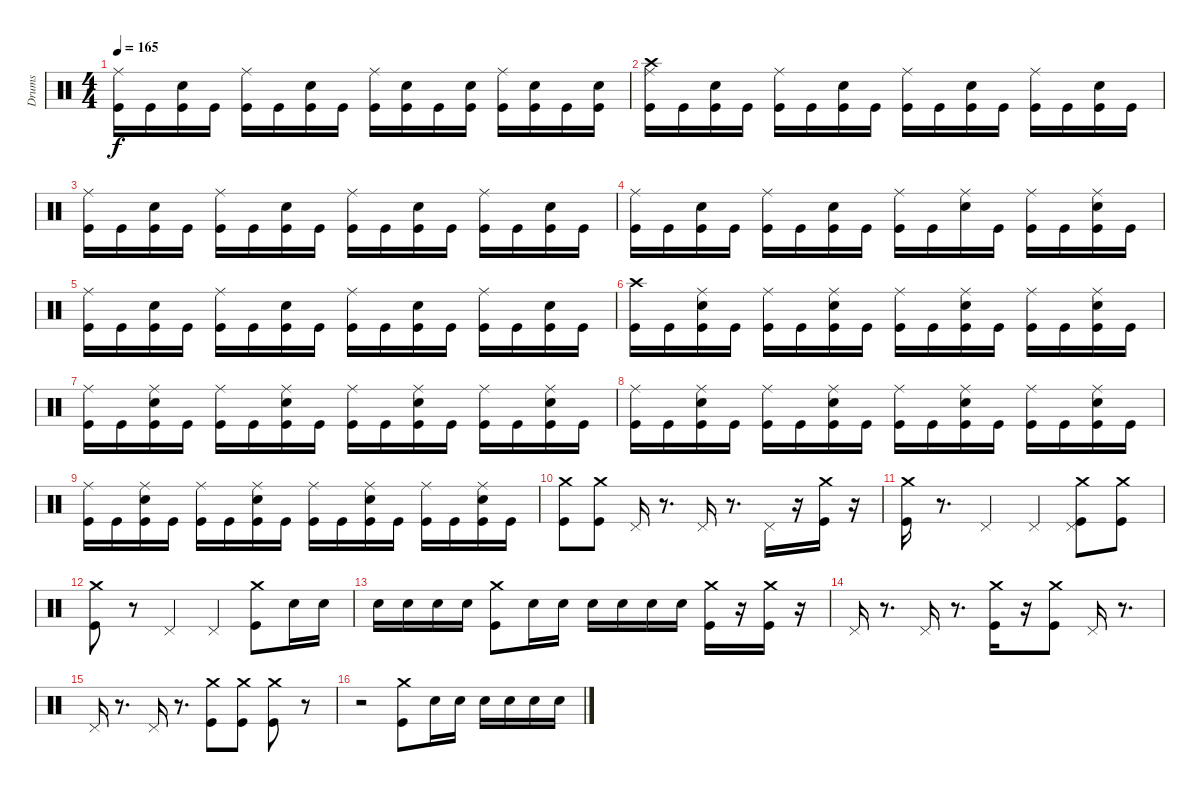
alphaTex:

\track ("Drums" "Drums") {instrument percussion}
\staff {score}
\articulation defaults
\ts (4 4)
\tempo 165
\clef neutral
\ks c
("Ride (middle)" "Kick (hit)").16{dy f} "Kick (hit)".16 ("Electric Snare (hit)" "Kick (hit)").16 "Kick (hit)".16 ("Ride (middle)" "Kick (hit)").16 "Kick (hit)".16 ("Electric Snare (hit)" "Kick (hit)").16 "Kick (hit)".16 ("Ride (middle)" "Kick (hit)").16 ("Electric Snare (hit)" "Kick (hit)").16 "Kick (hit)".16 ("Electric Snare (hit)" "Kick (hit)").16 ("Ride (middle)" "Kick (hit)").16 ("Electric Snare (hit)" "Kick (hit)").16 "Kick (hit)".16 ("Electric Snare (hit)" "Kick (hit)").16 |
("Crash high (hit)" "Ride (middle)" "Kick (hit)").16 "Kick (hit)".16 ("Electric Snare (hit)" "Kick (hit)").16 "Kick (hit)".16 ("Ride (middle)" "Kick (hit)").16 "Kick (hit)".16 ("Electric Snare (hit)" "Kick (hit)").16 "Kick (hit)".16 ("Ride (middle)" "Kick (hit)").16 "Kick (hit)".16 ("Electric Snare (hit)" "Kick (hit)").16 "Kick (hit)".16 ("Ride (middle)" "Kick (hit)").16 "Kick (hit)".16 ("Electric Snare (hit)" "Kick (hit)").16 "Kick (hit)".16 |
("Ride (middle)" "Kick (hit)").16 "Kick (hit)".16 ("Electric Snare (hit)" "Kick (hit)").16 "Kick (hit)".16 ("Ride (middle)" "Kick (hit)").16 "Kick (hit)".16 ("Electric Snare (hit)" "Kick (hit)").16 "Kick (hit)".16 ("Ride (middle)" "Kick (hit)").16 "Kick (hit)".16 ("Electric Snare (hit)" "Kick (hit)").16 "Kick (hit)".16 ("Ride (middle)" "Kick (hit)").16 "Kick (hit)".16 ("Electric Snare (hit)" "Kick (hit)").16 "Kick (hit)".16 |
("Ride (middle)" "Kick (hit)").16 "Kick (hit)".16 ("Electric Snare (hit)" "Kick (hit)").16 "Kick (hit)".16 ("Ride (middle)" "Kick (hit)").16 "Kick (hit)".16 ("Electric Snare (hit)" "Kick (hit)").16 "Kick (hit)".16 ("Ride (middle)" "Kick (hit)").16 "Kick (hit)".16 ("Ride (middle)" "Electric Snare (hit)").16 "Kick (hit)".16 ("Ride (middle)" "Kick (hit)").16 "Kick (hit)".16 ("Ride (middle)" "Electric Snare (hit)" "Kick (hit)").16 "Kick (hit)".16 |
("Ride (middle)" "Kick (hit)").16 "Kick (hit)".16 ("Electric Snare (hit)" "Kick (hit)").16 "Kick (hit)".16 ("Ride (middle)" "Kick (hit)").16 "Kick (hit)".16 ("Electric Snare (hit)" "Kick (hit)").16 "Kick (hit)".16 ("Ride (middle)" "Kick (hit)").16 "Kick (hit)".16 ("Electric Snare (hit)" "Kick (hit)").16 "Kick (hit)".16 ("Ride (middle)" "Kick (hit)").16 "Kick (hit)".16 ("Electric Snare (hit)" "Kick (hit)").16 "Kick (hit)".16 |
("Kick (hit)" "Crash high (hit)").16{volume 14 balance 8} "Kick (hit)".16 ("Ride (middle)" "Kick (hit)" "Electric Snare (hit)").16 "Kick (hit)".16 ("Ride (middle)" "Kick (hit)").16 "Kick (hit)".16 ("Ride (middle)" "Electric Snare (hit)" "Kick (hit)").16 "Kick (hit)".16 ("Ride (middle)" "Kick (hit)").16 "Kick (hit)".16 ("Ride (middle)" "Kick (hit)" "Electric Snare (hit)").16 "Kick (hit)".16 ("Ride (middle)" "Kick (hit)").16 "Kick (hit)".16 ("Ride (middle)" "Kick (hit)" "Electric Snare (hit)").16 "Kick (hit)".16 |
("Ride (middle)" "Kick (hit)").16 "Kick (hit)".16 ("Ride (middle)" "Electric Snare (hit)" "Kick (hit)").16 "Kick (hit)".16 ("Ride (middle)" "Kick (hit)").16 "Kick (hit)".16 ("Ride (middle)" "Electric Snare (hit)" "Kick (hit)").16 "Kick (hit)".16 ("Ride (middle)" "Kick (hit)").16 "Kick (hit)".16 ("Ride (middle)" "Electric Snare (hit)" "Kick (hit)").16 "Kick (hit)".16 ("Ride (middle)" "Kick (hit)").16 "Kick (hit)".16 ("Ride (middle)" "Electric Snare (hit)" "Kick (hit)").16 "Kick (hit)".16 |
("Ride (middle)" "Kick (hit)").16 "Kick (hit)".16 ("Ride (middle)" "Electric Snare (hit)" "Kick (hit)").16 "Kick (hit)".16 ("Ride (middle)" "Kick (hit)").16 "Kick (hit)".16 ("Ride (middle)" "Electric Snare (hit)" "Kick (hit)").16 "Kick (hit)".16 ("Ride (middle)" "Kick (hit)").16 "Kick (hit)".16 ("Ride (middle)" "Electric Snare (hit)" "Kick (hit)").16 "Kick (hit)".16 ("Ride (middle)" "Kick (hit)").16 "Kick (hit)".16 ("Ride (middle)" "Electric Snare (hit)" "Kick (hit)").16 "Kick (hit)".16 |
("Ride (middle)" "Kick (hit)").16 "Kick (hit)".16 ("Ride (middle)" "Electric Snare (hit)" "Kick (hit)").16 "Kick (hit)".16 ("Ride (middle)" "Kick (hit)").16 "Kick (hit)".16 ("Ride (middle)" "Electric Snare (hit)" "Kick (hit)").16 "Kick (hit)".16 ("Ride (middle)" "Kick (hit)").16 "Kick (hit)".16 ("Ride (middle)" "Electric Snare (hit)" "Kick (hit)").16 "Kick (hit)".16 ("Ride (middle)" "Kick (hit)").16{volume 14 balance 8} "Kick (hit)".16 ("Ride (middle)" "Electric Snare (hit)" "Kick (hit)").16 "Kick (hit)".16 |
("Crash medium (hit)" "Kick (hit)").8 ("Kick (hit)" "Crash medium (hit)").8 "Pedal Hi-Hat (hit)".16 r.8{d} "Pedal Hi-Hat (hit)".16 r.8{d} "Pedal Hi-Hat (hit)".16 r.16 ("Crash medium (hit)" "Kick (hit)").16 r.16 |
("Kick (hit)" "Crash medium (hit)").16 r.8{d} "Pedal Hi-Hat (hit)".4 "Pedal Hi-Hat (hit)".4 ("Pedal Hi-Hat (hit)" "Crash medium (hit)" "Kick (hit)").8 ("Kick (hit)" "Crash medium (hit)").8 |
("Crash medium (hit)" "Kick (hit)").8 r.8 "Pedal Hi-Hat (hit)".4 "Pedal Hi-Hat (hit)".4 ("Crash medium (hit)" "Kick (hit)").8 "Electric Snare (hit)".16 "Electric Snare (hit)".16 |
"Electric Snare (hit)".16 "Electric Snare (hit)".16 "Electric Snare (hit)".16 "Electric Snare (hit)".16 ("Kick (hit)" "Crash medium (hit)").8 "Electric Snare (hit)".16 "Electric Snare (hit)".16 "Electric Snare (hit)".16 "Electric Snare (hit)".16 "Electric Snare (hit)".16 "Electric Snare (hit)".16 ("Crash medium (hit)" "Kick (hit)").16 r.16 ("Kick (hit)" "Crash medium (hit)").16 r.16 |
"Pedal Hi-Hat (hit)".16 r.8{d} "Pedal Hi-Hat (hit)".16 r.8{d} ("Crash medium (hit)" "Kick (hit)").16 r.16 ("Kick (hit)" "Crash medium (hit)").8 "Pedal Hi-Hat (hit)".16 r.8{d} |
"Pedal Hi-Hat (hit)".16 r.8{d} "Pedal Hi-Hat (hit)".16 r.8{d} ("Crash medium (hit)" "Kick (hit)").8 ("Kick (hit)" "Crash medium (hit)").8 ("Crash medium (hit)" "Kick (hit)").8 r.8 |
r.2 ("Kick (hit)" "Crash medium (hit)").8 "Electric Snare (hit)".16 "Electric Snare (hit)".16 "Electric Snare (hit)".16 "Electric Snare (hit)".16 "Electric Snare (hit)".16 "Electric Snare (hit)".16
